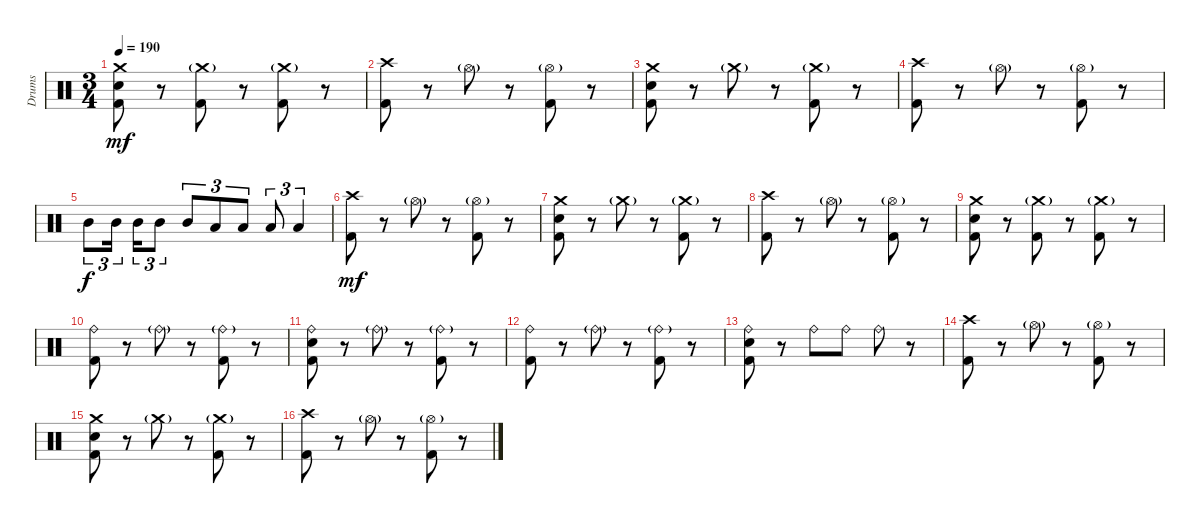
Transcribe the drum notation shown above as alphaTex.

\track ("Drums" "Drums") {instrument percussion}
\staff {score}
\articulation defaults
\ts (3 4)
\tempo 190
\clef neutral
\ks c
("Crash medium (hit)" "Kick (hit) 2" "Snare (hit) 2").8{dy mf} r.8 ("Crash medium (hit)"{g} "Kick (hit) 2").8 r.8 ("Crash medium (hit)"{g} "Kick (hit) 2").8 r.8 |
("Crash high (hit)" "Kick (hit) 2").8 r.8 "Hi-Hat (open)"{g}.8 r.8 ("Hi-Hat (open)"{g} "Kick (hit) 2").8 r.8 |
("Crash medium (hit)" "Kick (hit) 2" "Snare (hit) 2").8 r.8 "Crash medium (hit)"{g}.8 r.8 ("Crash medium (hit)"{g} "Kick (hit) 2").8 r.8 |
("Crash high (hit)" "Kick (hit) 2").8 r.8 "Hi-Hat (open)"{g}.8 r.8 ("Hi-Hat (open)"{g} "Kick (hit) 2").8 r.8 |
"Mid Tom (hit)".8{tu (3 2) dy f} "Mid Tom (hit)".16{tu (3 2) beam splitsecondary} "Mid Tom (hit)".16{tu (3 2)} "Mid Tom (hit)".8{tu (3 2)} "Mid Tom (hit)".8{tu (3 2)} "Low Tom (hit)".8{tu (3 2)} "Low Tom (hit)".8{tu (3 2)} "Low Tom (hit)".8{tu (3 2)} "Low Tom (hit)".4{tu (3 2)} |
("Crash high (hit)" "Kick (hit) 2").8{dy mf} r.8 "Hi-Hat (open)"{g}.8 r.8 ("Hi-Hat (open)"{g} "Kick (hit) 2").8 r.8 |
("Crash medium (hit)" "Kick (hit) 2" "Snare (hit) 2").8 r.8 "Crash medium (hit)"{g}.8 r.8 ("Crash medium (hit)"{g} "Kick (hit) 2").8 r.8 |
("Crash high (hit)" "Kick (hit) 2").8 r.8 "Hi-Hat (open)"{g}.8 r.8 ("Hi-Hat (open)"{g} "Kick (hit) 2").8 r.8 |
("Crash medium (hit)" "Kick (hit) 2" "Snare (hit) 2").8 r.8 ("Crash medium (hit)"{g} "Kick (hit) 2").8 r.8 ("Crash medium (hit)"{g} "Kick (hit) 2").8 r.8 |
("Ride (bell)" "Kick (hit) 2").8 r.8 "Ride (bell)"{g}.8 r.8 ("Ride (bell)"{g} "Kick (hit) 2").8 r.8 |
("Ride (bell)" "Kick (hit) 2" "Snare (hit) 2").8 r.8 "Ride (bell)"{g}.8 r.8 ("Ride (bell)"{g} "Kick (hit) 2").8 r.8 |
("Ride (bell)" "Kick (hit) 2").8 r.8 "Ride (bell)"{g}.8 r.8 ("Ride (bell)"{g} "Kick (hit) 2").8 r.8 |
("Ride (bell)" "Kick (hit) 2" "Snare (hit) 2").8 r.8 "Ride (bell)".8 "Ride (bell)".8 "Ride (bell)".8 r.8 |
("Crash high (hit)" "Kick (hit) 2").8 r.8 "Hi-Hat (open)"{g}.8 r.8 ("Hi-Hat (open)"{g} "Kick (hit) 2").8 r.8 |
("Crash medium (hit)" "Kick (hit) 2" "Snare (hit) 2").8 r.8 "Crash medium (hit)"{g}.8 r.8 ("Crash medium (hit)"{g} "Kick (hit) 2").8 r.8 |
("Crash high (hit)" "Kick (hit) 2").8 r.8 "Hi-Hat (open)"{g}.8 r.8 ("Hi-Hat (open)"{g} "Kick (hit) 2").8 r.8
